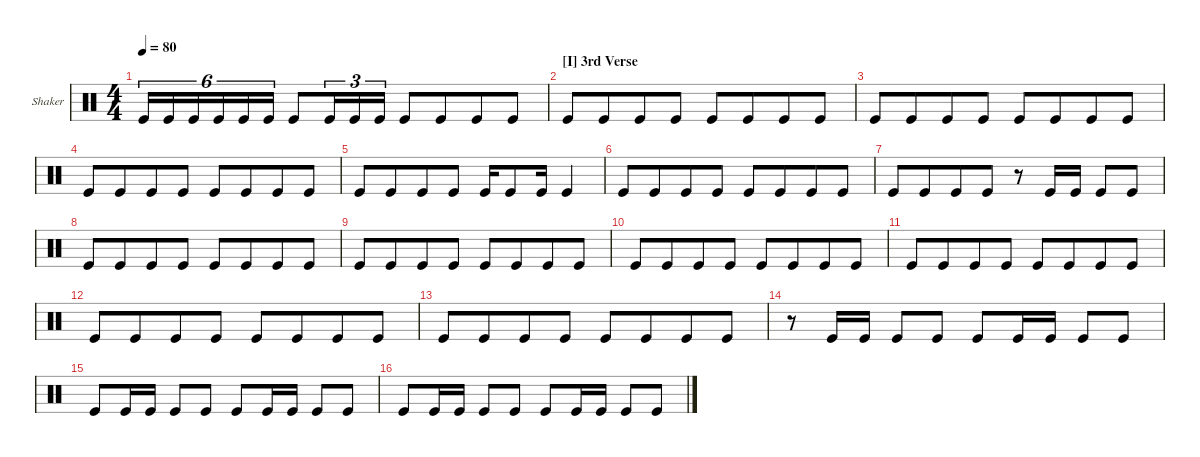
\defaultSystemsLayout 4
\hideDynamics
\bracketExtendMode groupsimilarinstruments
\firstSystemTrackNameOrientation horizontal
\otherSystemsTrackNameOrientation horizontal
\track ("Shaker" "Shaker") {multiBarRest instrument percussion}
\staff {score}
\articulation defaults
\ts (4 4)
\tempo 80
\clef neutral
\ks c "Kick (hit)".16{tu (6 4) dy p} "Kick (hit)".16{tu (6 4)} "Kick (hit)".16{tu (6 4)} "Kick (hit)".16{tu (6 4)} "Kick (hit)".16{tu (6 4)} "Kick (hit)".16{tu (6 4)} "Kick (hit)".8{beam merge} "Kick (hit)".16{tu (3 2)} "Kick (hit)".16{tu (3 2)} "Kick (hit)".16{tu (3 2)} "Kick (hit)".8 "Kick (hit)".8{beam merge} "Kick (hit)".8 "Kick (hit)".8
|
\section ("I" "3rd Verse")
"Kick (hit)".8 "Kick (hit)".8{beam merge} "Kick (hit)".8 "Kick (hit)".8 "Kick (hit)".8 "Kick (hit)".8{beam merge} "Kick (hit)".8 "Kick (hit)".8 |
"Kick (hit)".8 "Kick (hit)".8{beam merge} "Kick (hit)".8 "Kick (hit)".8 "Kick (hit)".8 "Kick (hit)".8{beam merge} "Kick (hit)".8 "Kick (hit)".8 |
"Kick (hit)".8 "Kick (hit)".8{beam merge} "Kick (hit)".8 "Kick (hit)".8 "Kick (hit)".8 "Kick (hit)".8{beam merge} "Kick (hit)".8 "Kick (hit)".8 |
"Kick (hit)".8 "Kick (hit)".8{beam merge} "Kick (hit)".8 "Kick (hit)".8 "Kick (hit)".16 "Kick (hit)".8 "Kick (hit)".16 "Kick (hit)".4 |
"Kick (hit)".8 "Kick (hit)".8{beam merge} "Kick (hit)".8 "Kick (hit)".8 "Kick (hit)".8 "Kick (hit)".8{beam merge} "Kick (hit)".8 "Kick (hit)".8 |
"Kick (hit)".8 "Kick (hit)".8{beam merge} "Kick (hit)".8 "Kick (hit)".8 r.8 "Kick (hit)".16 "Kick (hit)".16 "Kick (hit)".8 "Kick (hit)".8 |
"Kick (hit)".8 "Kick (hit)".8{beam merge} "Kick (hit)".8 "Kick (hit)".8 "Kick (hit)".8 "Kick (hit)".8{beam merge} "Kick (hit)".8 "Kick (hit)".8 |
"Kick (hit)".8 "Kick (hit)".8{beam merge} "Kick (hit)".8 "Kick (hit)".8 "Kick (hit)".8 "Kick (hit)".8{beam merge} "Kick (hit)".8 "Kick (hit)".8 |
"Kick (hit)".8 "Kick (hit)".8{beam merge} "Kick (hit)".8 "Kick (hit)".8 "Kick (hit)".8 "Kick (hit)".8{beam merge} "Kick (hit)".8 "Kick (hit)".8 |
"Kick (hit)".8 "Kick (hit)".8{beam merge} "Kick (hit)".8 "Kick (hit)".8 "Kick (hit)".8 "Kick (hit)".8{beam merge} "Kick (hit)".8 "Kick (hit)".8 |
"Kick (hit)".8 "Kick (hit)".8{beam merge} "Kick (hit)".8 "Kick (hit)".8 "Kick (hit)".8 "Kick (hit)".8{beam merge} "Kick (hit)".8 "Kick (hit)".8 |
"Kick (hit)".8 "Kick (hit)".8{beam merge} "Kick (hit)".8 "Kick (hit)".8 "Kick (hit)".8 "Kick (hit)".8{beam merge} "Kick (hit)".8 "Kick (hit)".8 |
r.8 "Kick (hit)".16 "Kick (hit)".16 "Kick (hit)".8 "Kick (hit)".8 "Kick (hit)".8 "Kick (hit)".16 "Kick (hit)".16 "Kick (hit)".8 "Kick (hit)".8 |
"Kick (hit)".8 "Kick (hit)".16 "Kick (hit)".16 "Kick (hit)".8 "Kick (hit)".8 "Kick (hit)".8 "Kick (hit)".16 "Kick (hit)".16 "Kick (hit)".8 "Kick (hit)".8 |
"Kick (hit)".8 "Kick (hit)".16 "Kick (hit)".16 "Kick (hit)".8 "Kick (hit)".8 "Kick (hit)".8 "Kick (hit)".16 "Kick (hit)".16 "Kick (hit)".8 "Kick (hit)".8
